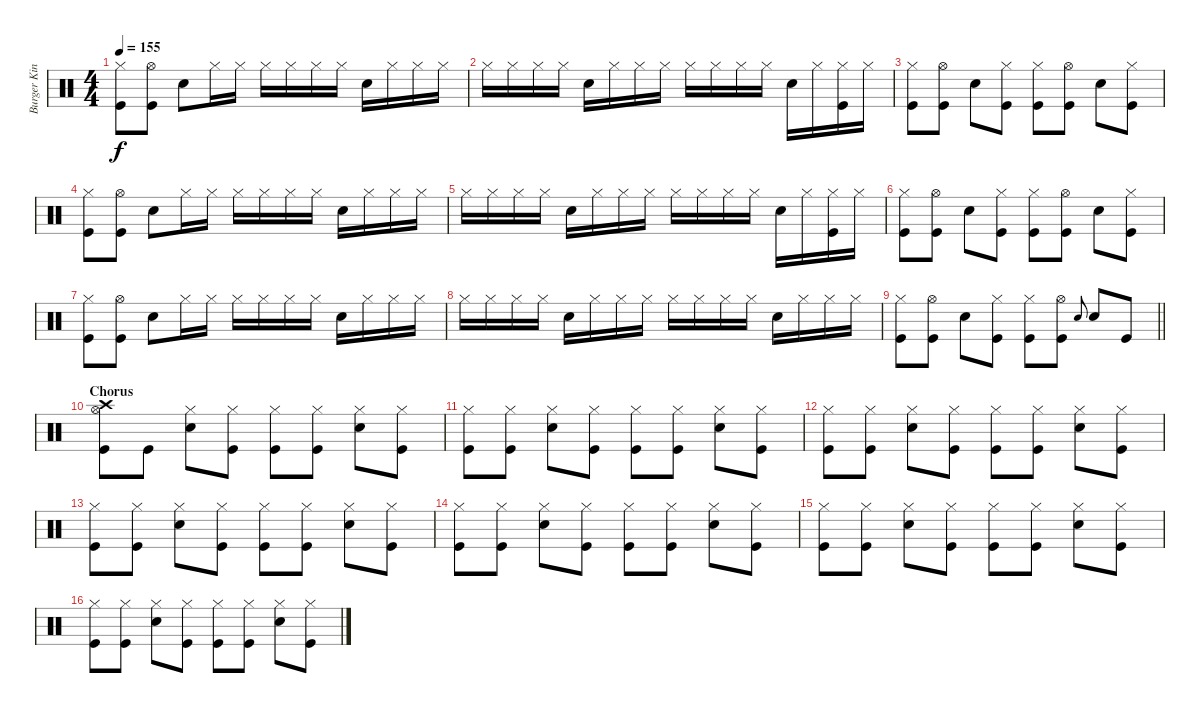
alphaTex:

\track ("Burger King" "Burger Kin") {instrument percussion}
\staff {score}
\articulation defaults
\ts (4 4)
\tempo 155
\clef neutral
\ks c
("Kick (hit)" "Hi-Hat (closed)").8{dy f} ("Kick (hit)" "Hi-Hat (open)").8 "Snare (hit) 2".8 "Hi-Hat (closed)".16 "Hi-Hat (closed)".16 "Hi-Hat (closed)".16 "Hi-Hat (closed)".16 "Hi-Hat (closed)".16 "Hi-Hat (closed)".16 "Snare (hit) 2".16 "Hi-Hat (closed)".16 "Hi-Hat (closed)".16 "Hi-Hat (closed)".16 |
"Hi-Hat (closed)".16 "Hi-Hat (closed)".16 "Hi-Hat (closed)".16 "Hi-Hat (closed)".16 "Snare (hit) 2".16 "Hi-Hat (closed)".16 "Hi-Hat (closed)".16 "Hi-Hat (closed)".16 "Hi-Hat (closed)".16 "Hi-Hat (closed)".16 "Hi-Hat (closed)".16 "Hi-Hat (closed)".16 "Snare (hit) 2".16 "Hi-Hat (closed)".16 ("Hi-Hat (closed)" "Kick (hit)").16 "Hi-Hat (closed)".16 |
("Kick (hit)" "Hi-Hat (closed)").8 ("Kick (hit)" "Hi-Hat (open)").8 "Snare (hit) 2".8 ("Kick (hit)" "Hi-Hat (closed)").8 ("Kick (hit)" "Hi-Hat (closed)").8 ("Kick (hit)" "Hi-Hat (open)").8 "Snare (hit) 2".8 ("Hi-Hat (closed)" "Kick (hit)").8 |
("Kick (hit)" "Hi-Hat (closed)").8 ("Kick (hit)" "Hi-Hat (open)").8 "Snare (hit) 2".8 "Hi-Hat (closed)".16 "Hi-Hat (closed)".16 "Hi-Hat (closed)".16 "Hi-Hat (closed)".16 "Hi-Hat (closed)".16 "Hi-Hat (closed)".16 "Snare (hit) 2".16 "Hi-Hat (closed)".16 "Hi-Hat (closed)".16 "Hi-Hat (closed)".16 |
"Hi-Hat (closed)".16 "Hi-Hat (closed)".16 "Hi-Hat (closed)".16 "Hi-Hat (closed)".16 "Snare (hit) 2".16 "Hi-Hat (closed)".16 "Hi-Hat (closed)".16 "Hi-Hat (closed)".16 "Hi-Hat (closed)".16 "Hi-Hat (closed)".16 "Hi-Hat (closed)".16 "Hi-Hat (closed)".16 "Snare (hit) 2".16 "Hi-Hat (closed)".16 ("Hi-Hat (closed)" "Kick (hit)").16 "Hi-Hat (closed)".16 |
("Kick (hit)" "Hi-Hat (closed)").8 ("Kick (hit)" "Hi-Hat (open)").8 "Snare (hit) 2".8 ("Kick (hit)" "Hi-Hat (closed)").8 ("Kick (hit)" "Hi-Hat (closed)").8 ("Kick (hit)" "Hi-Hat (open)").8 "Snare (hit) 2".8 ("Hi-Hat (closed)" "Kick (hit)").8 |
("Kick (hit)" "Hi-Hat (closed)").8 ("Kick (hit)" "Hi-Hat (open)").8 "Snare (hit) 2".8 "Hi-Hat (closed)".16 "Hi-Hat (closed)".16 "Hi-Hat (closed)".16 "Hi-Hat (closed)".16 "Hi-Hat (closed)".16 "Hi-Hat (closed)".16 "Snare (hit) 2".16 "Hi-Hat (closed)".16 "Hi-Hat (closed)".16 "Hi-Hat (closed)".16 |
"Hi-Hat (closed)".16 "Hi-Hat (closed)".16 "Hi-Hat (closed)".16 "Hi-Hat (closed)".16 "Snare (hit) 2".16 "Hi-Hat (closed)".16 "Hi-Hat (closed)".16 "Hi-Hat (closed)".16 "Hi-Hat (closed)".16 "Hi-Hat (closed)".16 "Hi-Hat (closed)".16 "Hi-Hat (closed)".16 "Snare (hit) 2".16 "Hi-Hat (closed)".16 "Hi-Hat (closed)".16 "Hi-Hat (closed)".16 |
\barLineRight lightlight
("Kick (hit)" "Hi-Hat (closed)").8 ("Kick (hit)" "Hi-Hat (open)").8 "Snare (hit) 2".8 ("Kick (hit)" "Hi-Hat (closed)").8 ("Kick (hit)" "Hi-Hat (closed)").8 ("Kick (hit)" "Hi-Hat (open)").8 "Snare (hit) 2".8{gr onbeat} "Snare (hit) 2".8 "Kick (hit)".8 |
\section ("" "Chorus")
("Hi-Hat (open)" "Crash high (hit)" "Kick (hit)").8 "Kick (hit)".8 ("Snare (hit) 2" "Hi-Hat (closed)").8 ("Kick (hit)" "Hi-Hat (closed)").8 ("Kick (hit)" "Hi-Hat (closed)").8 ("Kick (hit)" "Hi-Hat (closed)").8 ("Snare (hit) 2" "Hi-Hat (closed)").8 ("Hi-Hat (closed)" "Kick (hit)").8 |
("Kick (hit)" "Hi-Hat (closed)").8 ("Kick (hit)" "Hi-Hat (closed)").8 ("Snare (hit) 2" "Hi-Hat (closed)").8 ("Kick (hit)" "Hi-Hat (closed)").8 ("Kick (hit)" "Hi-Hat (closed)").8 ("Kick (hit)" "Hi-Hat (closed)").8 ("Snare (hit) 2" "Hi-Hat (closed)").8 ("Kick (hit)" "Hi-Hat (closed)").8 |
("Kick (hit)" "Hi-Hat (closed)").8 ("Kick (hit)" "Hi-Hat (closed)").8 ("Snare (hit) 2" "Hi-Hat (closed)").8 ("Kick (hit)" "Hi-Hat (closed)").8 ("Kick (hit)" "Hi-Hat (closed)").8 ("Kick (hit)" "Hi-Hat (closed)").8 ("Snare (hit) 2" "Hi-Hat (closed)").8 ("Kick (hit)" "Hi-Hat (closed)").8 |
("Kick (hit)" "Hi-Hat (closed)").8 ("Kick (hit)" "Hi-Hat (closed)").8 ("Snare (hit) 2" "Hi-Hat (closed)").8 ("Kick (hit)" "Hi-Hat (closed)").8 ("Kick (hit)" "Hi-Hat (closed)").8 ("Kick (hit)" "Hi-Hat (closed)").8 ("Snare (hit) 2" "Hi-Hat (closed)").8 ("Kick (hit)" "Hi-Hat (closed)").8 |
("Kick (hit)" "Hi-Hat (closed)").8 ("Kick (hit)" "Hi-Hat (closed)").8 ("Snare (hit) 2" "Hi-Hat (closed)").8 ("Kick (hit)" "Hi-Hat (closed)").8 ("Kick (hit)" "Hi-Hat (closed)").8 ("Kick (hit)" "Hi-Hat (closed)").8 ("Snare (hit) 2" "Hi-Hat (closed)").8 ("Kick (hit)" "Hi-Hat (closed)").8 |
("Kick (hit)" "Hi-Hat (closed)").8 ("Kick (hit)" "Hi-Hat (closed)").8 ("Snare (hit) 2" "Hi-Hat (closed)").8 ("Kick (hit)" "Hi-Hat (closed)").8 ("Kick (hit)" "Hi-Hat (closed)").8 ("Kick (hit)" "Hi-Hat (closed)").8 ("Snare (hit) 2" "Hi-Hat (closed)").8 ("Kick (hit)" "Hi-Hat (closed)").8 |
("Kick (hit)" "Hi-Hat (closed)").8 ("Kick (hit)" "Hi-Hat (closed)").8 ("Snare (hit) 2" "Hi-Hat (closed)").8 ("Kick (hit)" "Hi-Hat (closed)").8 ("Kick (hit)" "Hi-Hat (closed)").8 ("Kick (hit)" "Hi-Hat (closed)").8 ("Snare (hit) 2" "Hi-Hat (closed)").8 ("Kick (hit)" "Hi-Hat (closed)").8
